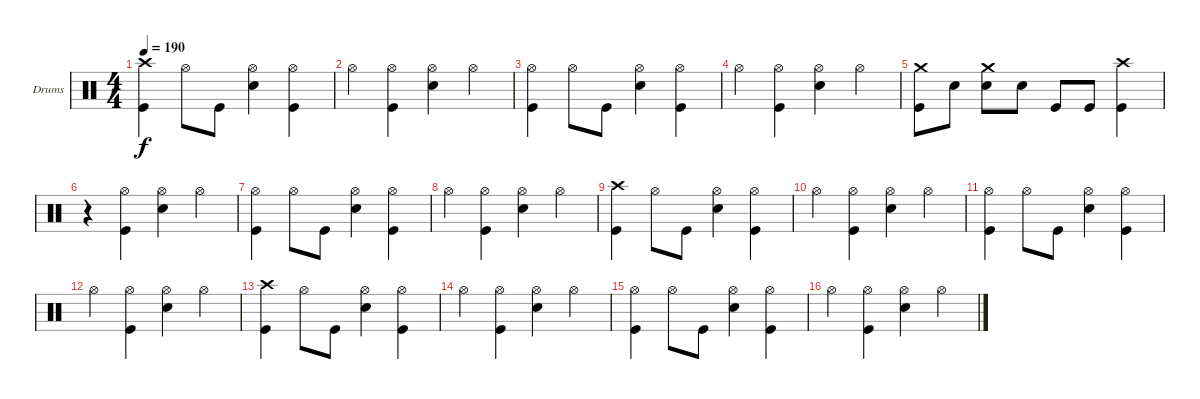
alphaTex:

\defaultSystemsLayout 4
\bracketExtendMode groupsimilarinstruments
\firstSystemTrackNameOrientation horizontal
\otherSystemsTrackNameOrientation horizontal
\track ("Drumkit" "Drums") {instrument percussion}
\staff {score}
\articulation defaults
\ts (4 4)
\tempo 190
\clef neutral
\ks c
("Kick (hit)" "Crash high (hit)").4{dy f} "Hi-Hat (open)".8 "Kick (hit)".8 ("Snare (hit) 2" "Hi-Hat (open)").4 ("Kick (hit)" "Hi-Hat (open)").4 |
"Hi-Hat (open)".4 ("Kick (hit)" "Hi-Hat (open)").4 ("Snare (hit) 2" "Hi-Hat (open)").4 "Hi-Hat (open)".4 |
("Kick (hit)" "Hi-Hat (open)").4 "Hi-Hat (open)".8 "Kick (hit)".8 ("Snare (hit) 2" "Hi-Hat (open)").4 ("Kick (hit)" "Hi-Hat (open)").4 |
"Hi-Hat (open)".4 ("Kick (hit)" "Hi-Hat (open)").4 ("Snare (hit) 2" "Hi-Hat (open)").4 "Hi-Hat (open)".4 |
("Kick (hit)" "Crash medium (hit)").8 "Snare (hit) 2".8 ("Snare (hit) 2" "Crash medium (hit)").8 "Snare (hit) 2".8 "Kick (hit)".8 "Kick (hit)".8 ("Kick (hit)" "Crash high (hit)").4 |
r.4 ("Kick (hit)" "Hi-Hat (open)").4 ("Snare (hit) 2" "Hi-Hat (open)").4 "Hi-Hat (open)".4 |
("Kick (hit)" "Hi-Hat (open)").4 "Hi-Hat (open)".8 "Kick (hit)".8 ("Snare (hit) 2" "Hi-Hat (open)").4 ("Kick (hit)" "Hi-Hat (open)").4 |
"Hi-Hat (open)".4 ("Kick (hit)" "Hi-Hat (open)").4 ("Snare (hit) 2" "Hi-Hat (open)").4 "Hi-Hat (open)".4 |
("Kick (hit)" "Crash high (hit)").4 "Hi-Hat (open)".8 "Kick (hit)".8 ("Snare (hit) 2" "Hi-Hat (open)").4 ("Kick (hit)" "Hi-Hat (open)").4 |
"Hi-Hat (open)".4 ("Kick (hit)" "Hi-Hat (open)").4 ("Snare (hit) 2" "Hi-Hat (open)").4 "Hi-Hat (open)".4 |
("Kick (hit)" "Hi-Hat (open)").4 "Hi-Hat (open)".8 "Kick (hit)".8 ("Snare (hit) 2" "Hi-Hat (open)").4 ("Kick (hit)" "Hi-Hat (open)").4 |
"Hi-Hat (open)".4 ("Kick (hit)" "Hi-Hat (open)").4 ("Snare (hit) 2" "Hi-Hat (open)").4 "Hi-Hat (open)".4 |
("Kick (hit)" "Crash high (hit)").4 "Hi-Hat (open)".8 "Kick (hit)".8 ("Snare (hit) 2" "Hi-Hat (open)").4 ("Kick (hit)" "Hi-Hat (open)").4 |
"Hi-Hat (open)".4 ("Kick (hit)" "Hi-Hat (open)").4 ("Snare (hit) 2" "Hi-Hat (open)").4 "Hi-Hat (open)".4 |
("Kick (hit)" "Hi-Hat (open)").4 "Hi-Hat (open)".8 "Kick (hit)".8 ("Snare (hit) 2" "Hi-Hat (open)").4 ("Kick (hit)" "Hi-Hat (open)").4 |
"Hi-Hat (open)".4 ("Kick (hit)" "Hi-Hat (open)").4 ("Snare (hit) 2" "Hi-Hat (open)").4 "Hi-Hat (open)".4
